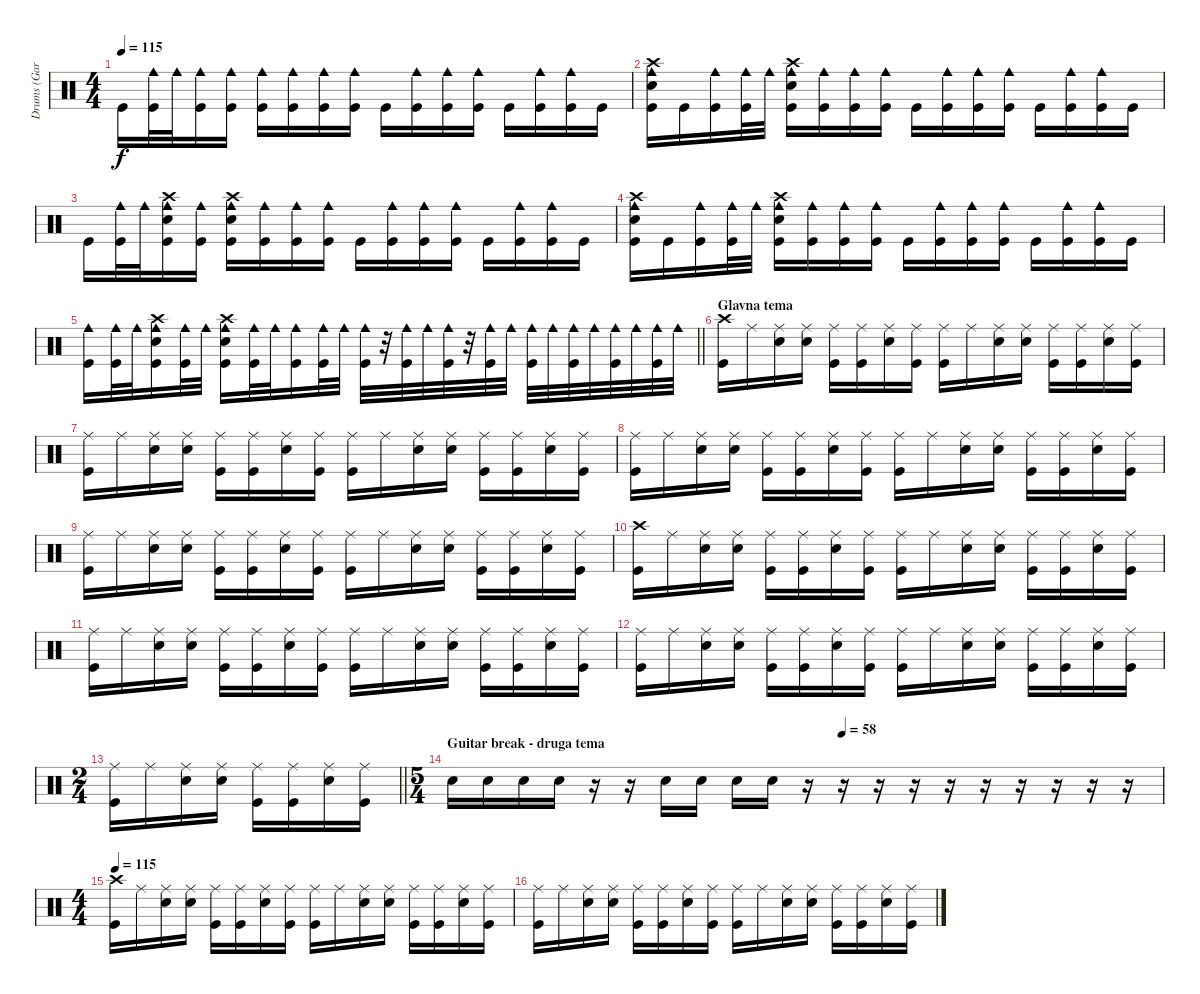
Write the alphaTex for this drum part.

\track ("Drums (Garabet Tavitjan)" "Drums (Gar") {instrument percussion}
\staff {score}
\articulation defaults
\ts (4 4)
\tempo 115
\clef neutral
\ks c "Kick (hit)".16{dy f}
("Cowbell medium (hit)" "Kick (hit)").32 "Cowbell medium (hit)".32 ("Cowbell medium (hit)" "Kick (hit)").16 ("Cowbell medium (hit)" "Kick (hit)").16 ("Cowbell medium (hit)" "Kick (hit)").16 ("Cowbell medium (hit)" "Kick (hit)").16 ("Cowbell medium (hit)" "Kick (hit)").16 ("Cowbell medium (hit)" "Kick (hit)").16 "Kick (hit)".16 ("Cowbell medium (hit)" "Kick (hit)").16 ("Cowbell medium (hit)" "Kick (hit)").16 ("Cowbell medium (hit)" "Kick (hit)").16 "Kick (hit)".16 ("Cowbell medium (hit)" "Kick (hit)").16 ("Cowbell medium (hit)" "Kick (hit)").16 "Kick (hit)".16 |
("Cowbell medium (hit)" "Crash high (hit)" "Electric Snare (hit)" "Kick (hit)").16 "Kick (hit)".16 ("Cowbell medium (hit)" "Kick (hit)").16 ("Cowbell medium (hit)" "Kick (hit)").32 "Cowbell medium (hit)".32 ("Cowbell medium (hit)" "Crash high (hit)" "Electric Snare (hit)" "Kick (hit)").16 ("Cowbell medium (hit)" "Kick (hit)").16 ("Cowbell medium (hit)" "Kick (hit)").16 ("Cowbell medium (hit)" "Kick (hit)").16 "Kick (hit)".16 ("Cowbell medium (hit)" "Kick (hit)").16 ("Cowbell medium (hit)" "Kick (hit)").16 ("Cowbell medium (hit)" "Kick (hit)").16 "Kick (hit)".16 ("Cowbell medium (hit)" "Kick (hit)").16 ("Cowbell medium (hit)" "Kick (hit)").16 "Kick (hit)".16 |
"Kick (hit)".16 ("Cowbell medium (hit)" "Kick (hit)").32 "Cowbell medium (hit)".32 ("Cowbell medium (hit)" "Crash high (hit)" "Electric Snare (hit)" "Kick (hit)").16 ("Cowbell medium (hit)" "Kick (hit)").16 ("Cowbell medium (hit)" "Crash high (hit)" "Electric Snare (hit)" "Kick (hit)").16 ("Cowbell medium (hit)" "Kick (hit)").16 ("Cowbell medium (hit)" "Kick (hit)").16 ("Cowbell medium (hit)" "Kick (hit)").16 "Kick (hit)".16 ("Cowbell medium (hit)" "Kick (hit)").16 ("Cowbell medium (hit)" "Kick (hit)").16 ("Cowbell medium (hit)" "Kick (hit)").16 "Kick (hit)".16 ("Cowbell medium (hit)" "Kick (hit)").16 ("Cowbell medium (hit)" "Kick (hit)").16 "Kick (hit)".16 |
("Cowbell medium (hit)" "Crash high (hit)" "Electric Snare (hit)" "Kick (hit)").16 "Kick (hit)".16 ("Cowbell medium (hit)" "Kick (hit)").16 ("Cowbell medium (hit)" "Kick (hit)").32 "Cowbell medium (hit)".32 ("Cowbell medium (hit)" "Crash high (hit)" "Electric Snare (hit)" "Kick (hit)").16 ("Cowbell medium (hit)" "Kick (hit)").16 ("Cowbell medium (hit)" "Kick (hit)").16 ("Cowbell medium (hit)" "Kick (hit)").16 "Kick (hit)".16 ("Cowbell medium (hit)" "Kick (hit)").16 ("Cowbell medium (hit)" "Kick (hit)").16 ("Cowbell medium (hit)" "Kick (hit)").16 "Kick (hit)".16 ("Cowbell medium (hit)" "Kick (hit)").16 ("Cowbell medium (hit)" "Kick (hit)").16 "Kick (hit)".16 |
\barLineRight lightlight
("Cowbell medium (hit)" "Kick (hit)").16 ("Cowbell medium (hit)" "Kick (hit)").32 "Cowbell medium (hit)".32 ("Cowbell medium (hit)" "Crash high (hit)" "Electric Snare (hit)" "Kick (hit)").16 ("Cowbell medium (hit)" "Kick (hit)").32 "Cowbell medium (hit)".32 ("Cowbell medium (hit)" "Crash high (hit)" "Electric Snare (hit)" "Kick (hit)").16 ("Cowbell medium (hit)" "Kick (hit)").32 "Cowbell medium (hit)".32 ("Cowbell medium (hit)" "Kick (hit)").16 ("Cowbell medium (hit)" "Kick (hit)").32 "Cowbell medium (hit)".32 ("Cowbell medium (hit)" "Kick (hit)").32 r.32 ("Cowbell medium (hit)" "Kick (hit)").32 "Cowbell medium (hit)".32 ("Cowbell medium (hit)" "Kick (hit)").32 r.32 ("Cowbell medium (hit)" "Kick (hit)").32 "Cowbell medium (hit)".32 ("Cowbell medium (hit)" "Kick (hit)").32 "Cowbell medium (hit)".32 ("Cowbell medium (hit)" "Kick (hit)").32 "Cowbell medium (hit)".32 ("Cowbell medium (hit)" "Kick (hit)").32 "Cowbell medium (hit)".32 ("Cowbell medium (hit)" "Kick (hit)").32 "Cowbell medium (hit)".32 |
\section ("" "Glavna tema")
("Crash high (hit)" "Kick (hit)").16 "Ride (middle)".16 ("Ride (middle)" "Electric Snare (hit)").16 ("Ride (middle)" "Electric Snare (hit)").16 ("Ride (middle)" "Kick (hit)").16 ("Ride (middle)" "Kick (hit)").16 ("Ride (middle)" "Electric Snare (hit)").16 ("Ride (middle)" "Kick (hit)").16 ("Ride (middle)" "Kick (hit)").16 "Ride (middle)".16 ("Ride (middle)" "Electric Snare (hit)").16 ("Ride (middle)" "Electric Snare (hit)").16 ("Ride (middle)" "Kick (hit)").16 ("Ride (middle)" "Kick (hit)").16 ("Ride (middle)" "Electric Snare (hit)").16 ("Ride (middle)" "Kick (hit)").16 |
("Ride (middle)" "Kick (hit)").16 "Ride (middle)".16 ("Ride (middle)" "Electric Snare (hit)").16 ("Ride (middle)" "Electric Snare (hit)").16 ("Ride (middle)" "Kick (hit)").16 ("Ride (middle)" "Kick (hit)").16 ("Ride (middle)" "Electric Snare (hit)").16 ("Ride (middle)" "Kick (hit)").16 ("Ride (middle)" "Kick (hit)").16 "Ride (middle)".16 ("Ride (middle)" "Electric Snare (hit)").16 ("Ride (middle)" "Electric Snare (hit)").16 ("Ride (middle)" "Kick (hit)").16 ("Ride (middle)" "Kick (hit)").16 ("Ride (middle)" "Electric Snare (hit)").16 ("Ride (middle)" "Kick (hit)").16 |
("Ride (middle)" "Kick (hit)").16 "Ride (middle)".16 ("Ride (middle)" "Electric Snare (hit)").16 ("Ride (middle)" "Electric Snare (hit)").16 ("Ride (middle)" "Kick (hit)").16 ("Ride (middle)" "Kick (hit)").16 ("Ride (middle)" "Electric Snare (hit)").16 ("Ride (middle)" "Kick (hit)").16 ("Ride (middle)" "Kick (hit)").16 "Ride (middle)".16 ("Ride (middle)" "Electric Snare (hit)").16 ("Ride (middle)" "Electric Snare (hit)").16 ("Ride (middle)" "Kick (hit)").16 ("Ride (middle)" "Kick (hit)").16 ("Ride (middle)" "Electric Snare (hit)").16 ("Ride (middle)" "Kick (hit)").16 |
("Ride (middle)" "Kick (hit)").16 "Ride (middle)".16 ("Ride (middle)" "Electric Snare (hit)").16 ("Ride (middle)" "Electric Snare (hit)").16 ("Ride (middle)" "Kick (hit)").16 ("Ride (middle)" "Kick (hit)").16 ("Ride (middle)" "Electric Snare (hit)").16 ("Ride (middle)" "Kick (hit)").16 ("Ride (middle)" "Kick (hit)").16 "Ride (middle)".16 ("Ride (middle)" "Electric Snare (hit)").16 ("Ride (middle)" "Electric Snare (hit)").16 ("Ride (middle)" "Kick (hit)").16 ("Ride (middle)" "Kick (hit)").16 ("Ride (middle)" "Electric Snare (hit)").16 ("Ride (middle)" "Kick (hit)").16 |
("Crash high (hit)" "Kick (hit)").16 "Ride (middle)".16 ("Ride (middle)" "Electric Snare (hit)").16 ("Ride (middle)" "Electric Snare (hit)").16 ("Ride (middle)" "Kick (hit)").16 ("Ride (middle)" "Kick (hit)").16 ("Ride (middle)" "Electric Snare (hit)").16 ("Ride (middle)" "Kick (hit)").16 ("Ride (middle)" "Kick (hit)").16 "Ride (middle)".16 ("Ride (middle)" "Electric Snare (hit)").16 ("Ride (middle)" "Electric Snare (hit)").16 ("Ride (middle)" "Kick (hit)").16 ("Ride (middle)" "Kick (hit)").16 ("Ride (middle)" "Electric Snare (hit)").16 ("Ride (middle)" "Kick (hit)").16 |
("Ride (middle)" "Kick (hit)").16 "Ride (middle)".16 ("Ride (middle)" "Electric Snare (hit)").16 ("Ride (middle)" "Electric Snare (hit)").16 ("Ride (middle)" "Kick (hit)").16 ("Ride (middle)" "Kick (hit)").16 ("Ride (middle)" "Electric Snare (hit)").16 ("Ride (middle)" "Kick (hit)").16 ("Ride (middle)" "Kick (hit)").16 "Ride (middle)".16 ("Ride (middle)" "Electric Snare (hit)").16 ("Ride (middle)" "Electric Snare (hit)").16 ("Ride (middle)" "Kick (hit)").16 ("Ride (middle)" "Kick (hit)").16 ("Ride (middle)" "Electric Snare (hit)").16 ("Ride (middle)" "Kick (hit)").16 |
("Ride (middle)" "Kick (hit)").16 "Ride (middle)".16 ("Ride (middle)" "Electric Snare (hit)").16 ("Ride (middle)" "Electric Snare (hit)").16 ("Ride (middle)" "Kick (hit)").16 ("Ride (middle)" "Kick (hit)").16 ("Ride (middle)" "Electric Snare (hit)").16 ("Ride (middle)" "Kick (hit)").16 ("Ride (middle)" "Kick (hit)").16 "Ride (middle)".16 ("Ride (middle)" "Electric Snare (hit)").16 ("Ride (middle)" "Electric Snare (hit)").16 ("Ride (middle)" "Kick (hit)").16 ("Ride (middle)" "Kick (hit)").16 ("Ride (middle)" "Electric Snare (hit)").16 ("Ride (middle)" "Kick (hit)").16 |
\ts (2 4)
\barLineRight lightlight
("Ride (middle)" "Kick (hit)").16 "Ride (middle)".16 ("Ride (middle)" "Electric Snare (hit)").16 ("Ride (middle)" "Electric Snare (hit)").16 ("Ride (middle)" "Kick (hit)").16 ("Ride (middle)" "Kick (hit)").16 ("Ride (middle)" "Electric Snare (hit)").16 ("Ride (middle)" "Kick (hit)").16 |
\ts (5 4)
\section ("" "Guitar break - druga tema")
\tempo (58 0.55)
"Electric Snare (hit)".16 "Electric Snare (hit)".16 "Electric Snare (hit)".16 "Electric Snare (hit)".16 r.16 r.16 "Electric Snare (hit)".16 "Electric Snare (hit)".16 "Electric Snare (hit)".16 "Electric Snare (hit)".16 r.16 r.16 r.16 r.16 r.16 r.16 r.16 r.16 r.16 r.16 |
\ts (4 4)
\tempo 115
("Crash high (hit)" "Kick (hit)").16 "Ride (middle)".16 ("Ride (middle)" "Electric Snare (hit)").16 ("Ride (middle)" "Electric Snare (hit)").16 ("Ride (middle)" "Kick (hit)").16 ("Ride (middle)" "Kick (hit)").16 ("Ride (middle)" "Electric Snare (hit)").16 ("Ride (middle)" "Kick (hit)").16 ("Ride (middle)" "Kick (hit)").16 "Ride (middle)".16 ("Ride (middle)" "Electric Snare (hit)").16 ("Ride (middle)" "Electric Snare (hit)").16 ("Ride (middle)" "Kick (hit)").16 ("Ride (middle)" "Kick (hit)").16 ("Ride (middle)" "Electric Snare (hit)").16 ("Ride (middle)" "Kick (hit)").16 |
("Ride (middle)" "Kick (hit)").16 "Ride (middle)".16 ("Ride (middle)" "Electric Snare (hit)").16 ("Ride (middle)" "Electric Snare (hit)").16 ("Ride (middle)" "Kick (hit)").16 ("Ride (middle)" "Kick (hit)").16 ("Ride (middle)" "Electric Snare (hit)").16 ("Ride (middle)" "Kick (hit)").16 ("Ride (middle)" "Kick (hit)").16 "Ride (middle)".16 ("Ride (middle)" "Electric Snare (hit)").16 ("Ride (middle)" "Electric Snare (hit)").16 ("Ride (middle)" "Kick (hit)").16 ("Ride (middle)" "Kick (hit)").16 ("Ride (middle)" "Electric Snare (hit)").16 ("Ride (middle)" "Kick (hit)").16
